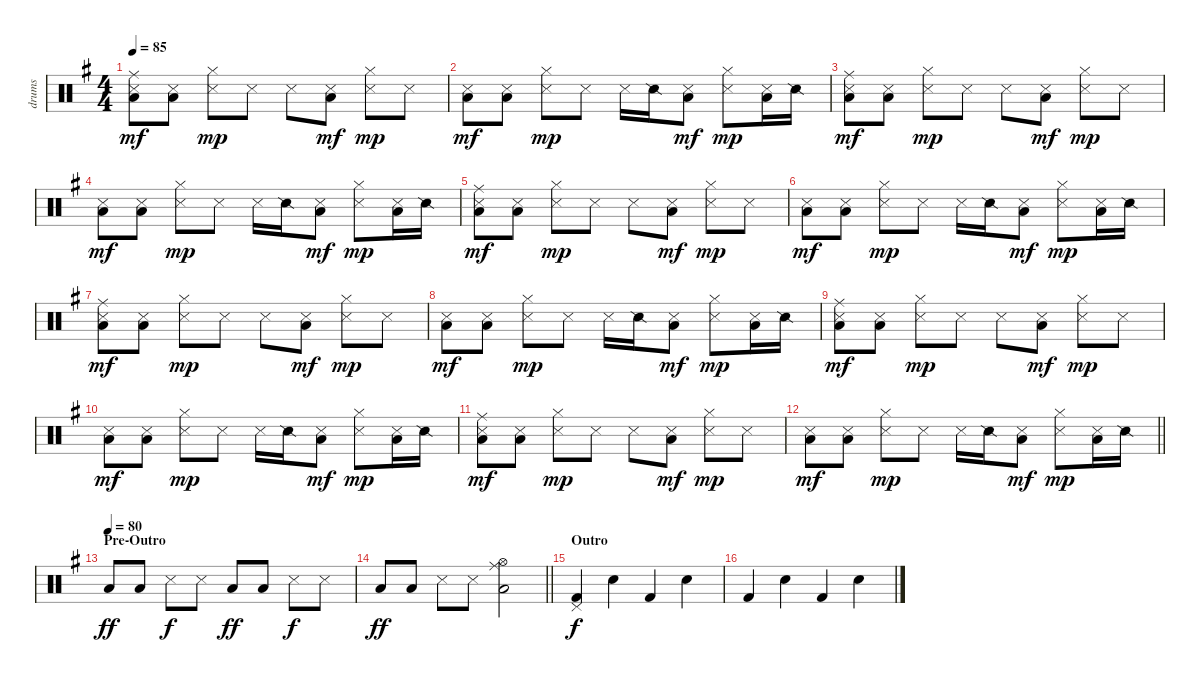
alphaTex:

\track ("drums" "drums") {instrument percussion}
\staff {score}
\articulation defaults
\ts (4 4)
\tempo 85
\clef neutral
\ks g
("Ride (middle)" "Snare (side stick) 3" "Low Floor Tom (hit)").8{dy mf} ("Snare (side stick) 3" "Low Floor Tom (hit)").8 ("Hi-Hat (closed)" "Snare (side stick) 3").8{dy mp} "Snare (side stick) 3".8 "Snare (side stick) 3".8 ("Snare (side stick) 3" "Low Floor Tom (hit)").8{dy mf} ("Hi-Hat (closed)" "Snare (side stick) 3").8{dy mp} "Snare (side stick) 3".8 |
("Snare (side stick) 3" "Low Floor Tom (hit)").8{dy mf} ("Snare (side stick) 3" "Low Floor Tom (hit)").8 ("Hi-Hat (closed)" "Snare (side stick) 3").8{dy mp} "Snare (side stick) 3".8 "Snare (side stick) 3".16 "Snare (side stick) 2".16 ("Snare (side stick) 3" "Low Floor Tom (hit)").8{dy mf} ("Hi-Hat (closed)" "Snare (side stick) 3").8{dy mp} ("Snare (side stick) 3" "Low Floor Tom (hit)").16 "Snare (side stick) 2".16 |
("Ride (middle)" "Snare (side stick) 3" "Low Floor Tom (hit)").8{dy mf} ("Snare (side stick) 3" "Low Floor Tom (hit)").8 ("Hi-Hat (closed)" "Snare (side stick) 3").8{dy mp} "Snare (side stick) 3".8 "Snare (side stick) 3".8 ("Snare (side stick) 3" "Low Floor Tom (hit)").8{dy mf} ("Hi-Hat (closed)" "Snare (side stick) 3").8{dy mp} "Snare (side stick) 3".8 |
("Snare (side stick) 3" "Low Floor Tom (hit)").8{dy mf} ("Snare (side stick) 3" "Low Floor Tom (hit)").8 ("Hi-Hat (closed)" "Snare (side stick) 3").8{dy mp} "Snare (side stick) 3".8 "Snare (side stick) 3".16 "Snare (side stick) 2".16 ("Snare (side stick) 3" "Low Floor Tom (hit)").8{dy mf} ("Hi-Hat (closed)" "Snare (side stick) 3").8{dy mp} ("Snare (side stick) 3" "Low Floor Tom (hit)").16 "Snare (side stick) 2".16 |
("Ride (middle)" "Snare (side stick) 3" "Low Floor Tom (hit)").8{dy mf} ("Snare (side stick) 3" "Low Floor Tom (hit)").8 ("Hi-Hat (closed)" "Snare (side stick) 3").8{dy mp} "Snare (side stick) 3".8 "Snare (side stick) 3".8 ("Snare (side stick) 3" "Low Floor Tom (hit)").8{dy mf} ("Hi-Hat (closed)" "Snare (side stick) 3").8{dy mp} "Snare (side stick) 3".8 |
("Snare (side stick) 3" "Low Floor Tom (hit)").8{dy mf} ("Snare (side stick) 3" "Low Floor Tom (hit)").8 ("Hi-Hat (closed)" "Snare (side stick) 3").8{dy mp} "Snare (side stick) 3".8 "Snare (side stick) 3".16 "Snare (side stick) 2".16 ("Snare (side stick) 3" "Low Floor Tom (hit)").8{dy mf} ("Hi-Hat (closed)" "Snare (side stick) 3").8{dy mp} ("Snare (side stick) 3" "Low Floor Tom (hit)").16 "Snare (side stick) 2".16 |
("Ride (middle)" "Snare (side stick) 3" "Low Floor Tom (hit)").8{dy mf} ("Snare (side stick) 3" "Low Floor Tom (hit)").8 ("Hi-Hat (closed)" "Snare (side stick) 3").8{dy mp} "Snare (side stick) 3".8 "Snare (side stick) 3".8 ("Snare (side stick) 3" "Low Floor Tom (hit)").8{dy mf} ("Hi-Hat (closed)" "Snare (side stick) 3").8{dy mp} "Snare (side stick) 3".8 |
("Snare (side stick) 3" "Low Floor Tom (hit)").8{dy mf} ("Snare (side stick) 3" "Low Floor Tom (hit)").8 ("Hi-Hat (closed)" "Snare (side stick) 3").8{dy mp} "Snare (side stick) 3".8 "Snare (side stick) 3".16 "Snare (side stick) 2".16 ("Snare (side stick) 3" "Low Floor Tom (hit)").8{dy mf} ("Hi-Hat (closed)" "Snare (side stick) 3").8{dy mp} ("Snare (side stick) 3" "Low Floor Tom (hit)").16 "Snare (side stick) 2".16 |
("Ride (middle)" "Snare (side stick) 3" "Low Floor Tom (hit)").8{dy mf} ("Snare (side stick) 3" "Low Floor Tom (hit)").8 ("Hi-Hat (closed)" "Snare (side stick) 3").8{dy mp} "Snare (side stick) 3".8 "Snare (side stick) 3".8 ("Snare (side stick) 3" "Low Floor Tom (hit)").8{dy mf} ("Hi-Hat (closed)" "Snare (side stick) 3").8{dy mp} "Snare (side stick) 3".8 |
("Snare (side stick) 3" "Low Floor Tom (hit)").8{dy mf} ("Snare (side stick) 3" "Low Floor Tom (hit)").8 ("Hi-Hat (closed)" "Snare (side stick) 3").8{dy mp} "Snare (side stick) 3".8 "Snare (side stick) 3".16 "Snare (side stick) 2".16 ("Snare (side stick) 3" "Low Floor Tom (hit)").8{dy mf} ("Hi-Hat (closed)" "Snare (side stick) 3").8{dy mp} ("Snare (side stick) 3" "Low Floor Tom (hit)").16 "Snare (side stick) 2".16 |
("Ride (middle)" "Snare (side stick) 3" "Low Floor Tom (hit)").8{dy mf} ("Snare (side stick) 3" "Low Floor Tom (hit)").8 ("Hi-Hat (closed)" "Snare (side stick) 3").8{dy mp} "Snare (side stick) 3".8 "Snare (side stick) 3".8 ("Snare (side stick) 3" "Low Floor Tom (hit)").8{dy mf} ("Hi-Hat (closed)" "Snare (side stick) 3").8{dy mp} "Snare (side stick) 3".8 |
\barLineRight lightlight
("Snare (side stick) 3" "Low Floor Tom (hit)").8{dy mf} ("Snare (side stick) 3" "Low Floor Tom (hit)").8 ("Hi-Hat (closed)" "Snare (side stick) 3").8{dy mp} "Snare (side stick) 3".8 "Snare (side stick) 3".16 "Snare (side stick) 2".16 ("Snare (side stick) 3" "Low Floor Tom (hit)").8{dy mf} ("Hi-Hat (closed)" "Snare (side stick) 3").8{dy mp} ("Snare (side stick) 3" "Low Floor Tom (hit)").16 "Snare (side stick) 2".16 |
\section ("" "Pre-Outro")
\tempo (80)
"Low Floor Tom (hit)".8{dy ff} "Low Floor Tom (hit)".8 "Snare (side stick) 3".8{dy f} "Snare (side stick) 3".8 "Low Floor Tom (hit)".8{dy ff} "Low Floor Tom (hit)".8 "Snare (side stick) 3".8{dy f} "Snare (side stick) 3".8 |
\barLineRight lightlight "Low Floor Tom (hit)".8{dy ff} "Low Floor Tom (hit)".8 "Snare (side stick) 3".8 "Snare (side stick) 3".8
("Ride (middle)" "Hi-Hat (open)" "Low Floor Tom (hit)").2 |
\section ("" "Outro")
("Pedal Hi-Hat (hit)" "Kick (hit) 2").4{dy f} "Electric Snare (hit)".4 "Kick (hit) 2".4 "Electric Snare (hit)".4 |
"Kick (hit) 2".4 "Electric Snare (hit)".4 "Kick (hit) 2".4 "Electric Snare (hit)".4
